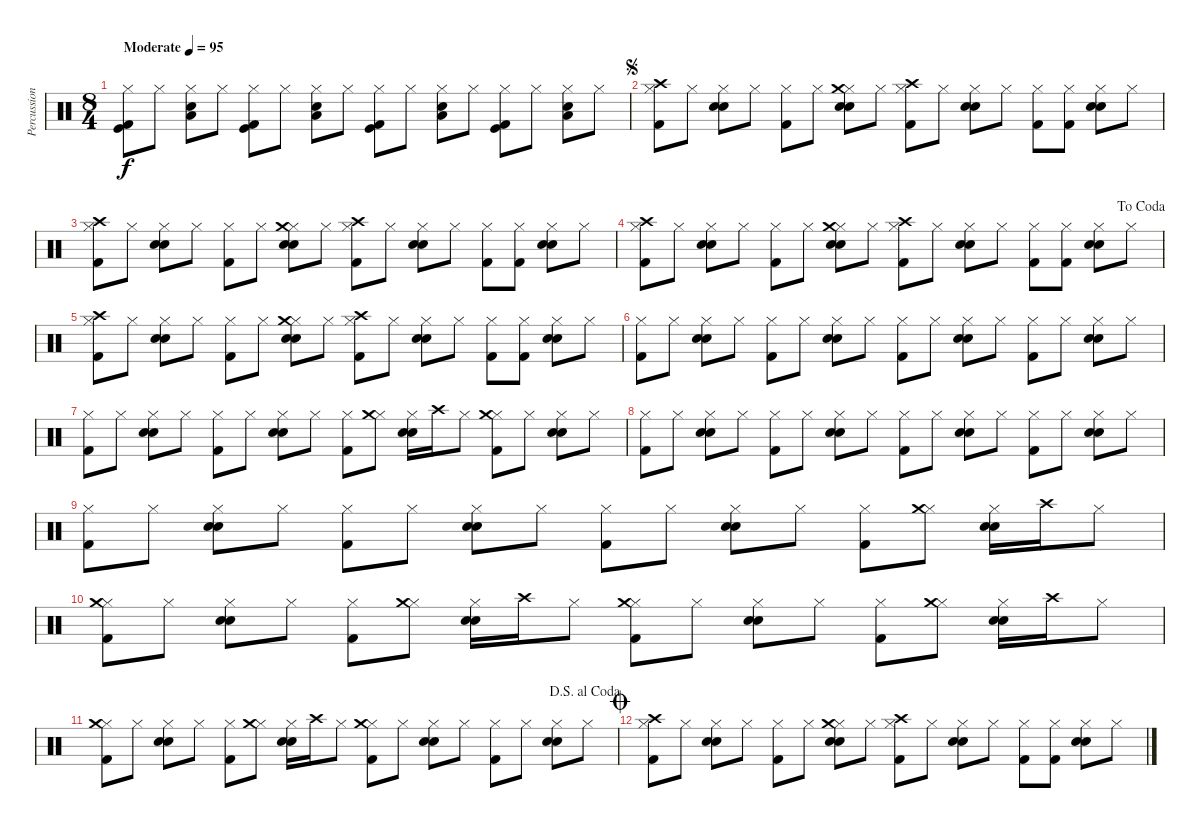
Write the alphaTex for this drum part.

\track ("Percussion" "Percussion") {instrument percussion}
\staff {score}
\articulation defaults
\ts (8 4)
\tempo (95 "Moderate")
\clef neutral
\ks c
("Hi-Hat (closed)" "Kick (hit)" "Kick (hit) 2").8{dy f} "Hi-Hat (closed)".8 ("Hi-Hat (closed)" "Snare (hit) 2" "Low Tom (hit)").8 "Hi-Hat (closed)".8 ("Hi-Hat (closed)" "Kick (hit)" "Kick (hit) 2").8 "Hi-Hat (closed)".8 ("Hi-Hat (closed)" "Snare (hit) 2" "Low Tom (hit)").8 "Hi-Hat (closed)".8 ("Hi-Hat (closed)" "Kick (hit)" "Kick (hit) 2").8 "Hi-Hat (closed)".8 ("Hi-Hat (closed)" "Snare (hit) 2" "Low Tom (hit)").8 "Hi-Hat (closed)".8 ("Hi-Hat (closed)" "Kick (hit)" "Kick (hit) 2").8 "Hi-Hat (closed)".8 ("Hi-Hat (closed)" "Snare (hit) 2" "Low Tom (hit)").8 "Hi-Hat (closed)".8 |
\jump segno
("Hi-Hat (closed)" "Crash high (hit)" "Kick (hit) 2").8 "Hi-Hat (closed)".8 ("Hi-Hat (closed)" "Snare (hit) 2" "Electric Snare (hit)").8 "Hi-Hat (closed)".8 ("Hi-Hat (closed)" "Kick (hit) 2").8 "Hi-Hat (closed)".8 ("Hi-Hat (closed)" "Crash medium (hit)" "Snare (hit) 2" "Electric Snare (hit)").8 "Hi-Hat (closed)".8 ("Hi-Hat (closed)" "Crash high (hit)" "Kick (hit) 2").8 "Hi-Hat (closed)".8 ("Hi-Hat (closed)" "Snare (hit) 2" "Electric Snare (hit)").8 "Hi-Hat (closed)".8 ("Hi-Hat (closed)" "Kick (hit) 2").8 ("Hi-Hat (closed)" "Kick (hit) 2").8 ("Hi-Hat (closed)" "Snare (hit) 2" "Electric Snare (hit)").8 "Hi-Hat (closed)".8 |
("Hi-Hat (closed)" "Crash high (hit)" "Kick (hit) 2").8 "Hi-Hat (closed)".8 ("Hi-Hat (closed)" "Snare (hit) 2" "Electric Snare (hit)").8 "Hi-Hat (closed)".8 ("Hi-Hat (closed)" "Kick (hit) 2").8 "Hi-Hat (closed)".8 ("Hi-Hat (closed)" "Crash medium (hit)" "Snare (hit) 2" "Electric Snare (hit)").8 "Hi-Hat (closed)".8 ("Hi-Hat (closed)" "Crash high (hit)" "Kick (hit) 2").8 "Hi-Hat (closed)".8 ("Hi-Hat (closed)" "Snare (hit) 2" "Electric Snare (hit)").8 "Hi-Hat (closed)".8 ("Hi-Hat (closed)" "Kick (hit) 2").8 ("Hi-Hat (closed)" "Kick (hit) 2").8 ("Hi-Hat (closed)" "Snare (hit) 2" "Electric Snare (hit)").8 "Hi-Hat (closed)".8 |
\jump dacoda
("Hi-Hat (closed)" "Crash high (hit)" "Kick (hit) 2").8 "Hi-Hat (closed)".8 ("Hi-Hat (closed)" "Snare (hit) 2" "Electric Snare (hit)").8 "Hi-Hat (closed)".8 ("Hi-Hat (closed)" "Kick (hit) 2").8 "Hi-Hat (closed)".8 ("Hi-Hat (closed)" "Crash medium (hit)" "Snare (hit) 2" "Electric Snare (hit)").8 "Hi-Hat (closed)".8 ("Hi-Hat (closed)" "Crash high (hit)" "Kick (hit) 2").8 "Hi-Hat (closed)".8 ("Hi-Hat (closed)" "Snare (hit) 2" "Electric Snare (hit)").8 "Hi-Hat (closed)".8 ("Hi-Hat (closed)" "Kick (hit) 2").8 ("Hi-Hat (closed)" "Kick (hit) 2").8 ("Hi-Hat (closed)" "Snare (hit) 2" "Electric Snare (hit)").8 "Hi-Hat (closed)".8 |
("Hi-Hat (closed)" "Crash high (hit)" "Kick (hit) 2").8 "Hi-Hat (closed)".8 ("Hi-Hat (closed)" "Snare (hit) 2" "Electric Snare (hit)").8 "Hi-Hat (closed)".8 ("Hi-Hat (closed)" "Kick (hit) 2").8 "Hi-Hat (closed)".8 ("Hi-Hat (closed)" "Crash medium (hit)" "Snare (hit) 2" "Electric Snare (hit)").8 "Hi-Hat (closed)".8 ("Hi-Hat (closed)" "Crash high (hit)" "Kick (hit) 2").8 "Hi-Hat (closed)".8 ("Hi-Hat (closed)" "Snare (hit) 2" "Electric Snare (hit)").8 "Hi-Hat (closed)".8 ("Hi-Hat (closed)" "Kick (hit) 2").8 ("Hi-Hat (closed)" "Kick (hit) 2").8 ("Hi-Hat (closed)" "Snare (hit) 2" "Electric Snare (hit)").8 "Hi-Hat (closed)".8 |
("Hi-Hat (closed)" "Kick (hit) 2").8 "Hi-Hat (closed)".8 ("Hi-Hat (closed)" "Snare (hit) 2" "Electric Snare (hit)").8 "Hi-Hat (closed)".8 ("Hi-Hat (closed)" "Kick (hit) 2").8 "Hi-Hat (closed)".8 ("Hi-Hat (closed)" "Snare (hit) 2" "Electric Snare (hit)").8 "Hi-Hat (closed)".8 ("Hi-Hat (closed)" "Kick (hit) 2").8 "Hi-Hat (closed)".8 ("Hi-Hat (closed)" "Snare (hit) 2" "Electric Snare (hit)").8 "Hi-Hat (closed)".8 ("Hi-Hat (closed)" "Kick (hit) 2").8 "Hi-Hat (closed)".8 ("Hi-Hat (closed)" "Snare (hit) 2" "Electric Snare (hit)").8 "Hi-Hat (closed)".8 |
("Hi-Hat (closed)" "Kick (hit) 2").8 "Hi-Hat (closed)".8 ("Hi-Hat (closed)" "Snare (hit) 2" "Electric Snare (hit)").8 "Hi-Hat (closed)".8 ("Hi-Hat (closed)" "Kick (hit) 2").8 "Hi-Hat (closed)".8 ("Hi-Hat (closed)" "Snare (hit) 2" "Electric Snare (hit)").8 "Hi-Hat (closed)".8 ("Hi-Hat (closed)" "Kick (hit) 2").8 ("Hi-Hat (closed)" "Crash medium (hit)").8 ("Hi-Hat (closed)" "Snare (hit) 2" "Electric Snare (hit)").16 "Crash high (hit)".16 "Hi-Hat (closed)".8 ("Hi-Hat (closed)" "Crash medium (hit)" "Kick (hit) 2").8 "Hi-Hat (closed)".8 ("Hi-Hat (closed)" "Snare (hit) 2" "Electric Snare (hit)").8 "Hi-Hat (closed)".8 |
("Hi-Hat (closed)" "Kick (hit) 2").8 "Hi-Hat (closed)".8 ("Hi-Hat (closed)" "Snare (hit) 2" "Electric Snare (hit)").8 "Hi-Hat (closed)".8 ("Hi-Hat (closed)" "Kick (hit) 2").8 "Hi-Hat (closed)".8 ("Hi-Hat (closed)" "Snare (hit) 2" "Electric Snare (hit)").8 "Hi-Hat (closed)".8 ("Hi-Hat (closed)" "Kick (hit) 2").8 "Hi-Hat (closed)".8 ("Hi-Hat (closed)" "Snare (hit) 2" "Electric Snare (hit)").8 "Hi-Hat (closed)".8 ("Hi-Hat (closed)" "Kick (hit) 2").8 "Hi-Hat (closed)".8 ("Hi-Hat (closed)" "Snare (hit) 2" "Electric Snare (hit)").8 "Hi-Hat (closed)".8 |
("Hi-Hat (closed)" "Kick (hit) 2").8 "Hi-Hat (closed)".8 ("Hi-Hat (closed)" "Snare (hit) 2" "Electric Snare (hit)").8 "Hi-Hat (closed)".8 ("Hi-Hat (closed)" "Kick (hit) 2").8 "Hi-Hat (closed)".8 ("Hi-Hat (closed)" "Snare (hit) 2" "Electric Snare (hit)").8 "Hi-Hat (closed)".8 ("Hi-Hat (closed)" "Kick (hit) 2").8 "Hi-Hat (closed)".8 ("Hi-Hat (closed)" "Snare (hit) 2" "Electric Snare (hit)").8 "Hi-Hat (closed)".8 ("Hi-Hat (closed)" "Kick (hit) 2").8 ("Hi-Hat (closed)" "Crash medium (hit)").8 ("Hi-Hat (closed)" "Snare (hit) 2" "Electric Snare (hit)").16 "Crash high (hit)".16 "Hi-Hat (closed)".8 |
("Hi-Hat (closed)" "Crash medium (hit)" "Kick (hit) 2").8 "Hi-Hat (closed)".8 ("Hi-Hat (closed)" "Snare (hit) 2" "Electric Snare (hit)").8 "Hi-Hat (closed)".8 ("Hi-Hat (closed)" "Kick (hit) 2").8 ("Hi-Hat (closed)" "Crash medium (hit)").8 ("Hi-Hat (closed)" "Snare (hit) 2" "Electric Snare (hit)").16 "Crash high (hit)".16 "Hi-Hat (closed)".8 ("Hi-Hat (closed)" "Crash medium (hit)" "Kick (hit) 2").8 "Hi-Hat (closed)".8 ("Hi-Hat (closed)" "Snare (hit) 2" "Electric Snare (hit)").8 "Hi-Hat (closed)".8 ("Hi-Hat (closed)" "Kick (hit) 2").8 ("Hi-Hat (closed)" "Crash medium (hit)").8 ("Hi-Hat (closed)" "Snare (hit) 2" "Electric Snare (hit)").16 "Crash high (hit)".16 "Hi-Hat (closed)".8 |
\jump dalsegnoalcoda
("Hi-Hat (closed)" "Crash medium (hit)" "Kick (hit) 2").8 "Hi-Hat (closed)".8 ("Hi-Hat (closed)" "Snare (hit) 2" "Electric Snare (hit)").8 "Hi-Hat (closed)".8 ("Hi-Hat (closed)" "Kick (hit) 2").8 ("Hi-Hat (closed)" "Crash medium (hit)").8 ("Hi-Hat (closed)" "Snare (hit) 2" "Electric Snare (hit)").16 "Crash high (hit)".16 "Hi-Hat (closed)".8 ("Hi-Hat (closed)" "Crash medium (hit)" "Kick (hit) 2").8 "Hi-Hat (closed)".8 ("Hi-Hat (closed)" "Snare (hit) 2" "Electric Snare (hit)").8 "Hi-Hat (closed)".8 ("Hi-Hat (closed)" "Kick (hit) 2").8 "Hi-Hat (closed)".8 ("Hi-Hat (closed)" "Snare (hit) 2" "Electric Snare (hit)").8 "Hi-Hat (closed)".8 |
\jump coda
("Hi-Hat (closed)" "Crash high (hit)" "Kick (hit) 2").8 "Hi-Hat (closed)".8 ("Hi-Hat (closed)" "Snare (hit) 2" "Electric Snare (hit)").8 "Hi-Hat (closed)".8 ("Hi-Hat (closed)" "Kick (hit) 2").8 "Hi-Hat (closed)".8 ("Hi-Hat (closed)" "Crash medium (hit)" "Snare (hit) 2" "Electric Snare (hit)").8 "Hi-Hat (closed)".8 ("Hi-Hat (closed)" "Crash high (hit)" "Kick (hit) 2").8 "Hi-Hat (closed)".8 ("Hi-Hat (closed)" "Snare (hit) 2" "Electric Snare (hit)").8 "Hi-Hat (closed)".8 ("Hi-Hat (closed)" "Kick (hit) 2").8 ("Hi-Hat (closed)" "Kick (hit) 2").8 ("Hi-Hat (closed)" "Snare (hit) 2" "Electric Snare (hit)").8 "Hi-Hat (closed)".8
